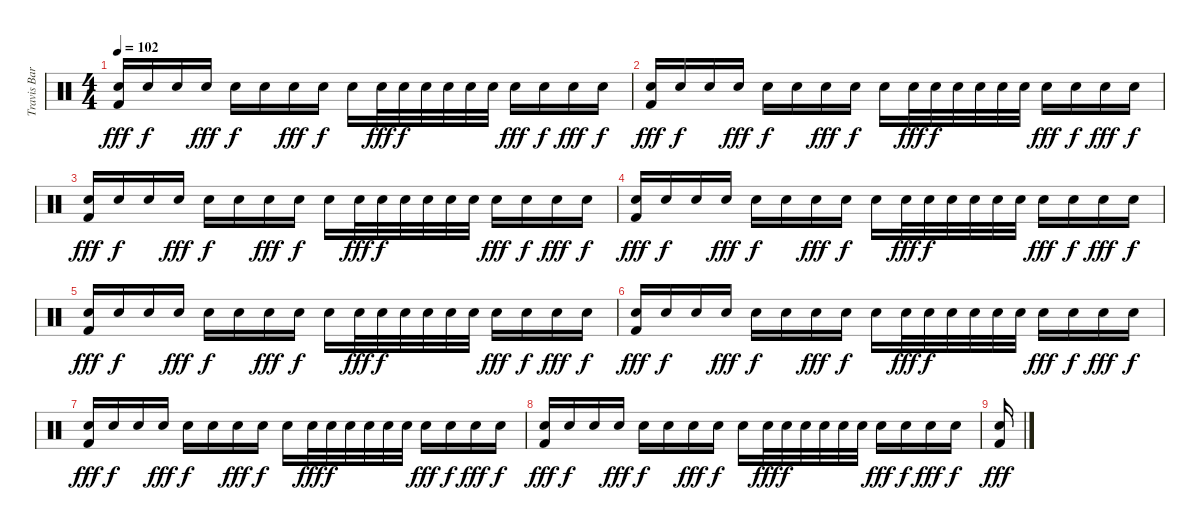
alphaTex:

\track ("Travis Barker" "Travis Bar") {instrument percussion}
\staff {score}
\articulation defaults
\ts (4 4)
\tempo 102
\clef neutral
\ks c
("Electric Snare (hit)" "Kick (hit) 2").16{dy fff} "Electric Snare (hit)".16{dy f} "Electric Snare (hit)".16 "Electric Snare (hit)".16{dy fff} "Electric Snare (hit)".16{dy f} "Electric Snare (hit)".16 "Electric Snare (hit)".16{dy fff} "Electric Snare (hit)".16{dy f} "Electric Snare (hit)".16 "Electric Snare (hit)".32{dy fff} "Electric Snare (hit)".32{dy f} "Electric Snare (hit)".32 "Electric Snare (hit)".32 "Electric Snare (hit)".32 "Electric Snare (hit)".32 "Electric Snare (hit)".16{dy fff} "Electric Snare (hit)".16{dy f} "Electric Snare (hit)".16{dy fff} "Electric Snare (hit)".16{dy f} |
("Electric Snare (hit)" "Kick (hit) 2").16{dy fff} "Electric Snare (hit)".16{dy f} "Electric Snare (hit)".16 "Electric Snare (hit)".16{dy fff} "Electric Snare (hit)".16{dy f} "Electric Snare (hit)".16 "Electric Snare (hit)".16{dy fff} "Electric Snare (hit)".16{dy f} "Electric Snare (hit)".16 "Electric Snare (hit)".32{dy fff} "Electric Snare (hit)".32{dy f} "Electric Snare (hit)".32 "Electric Snare (hit)".32 "Electric Snare (hit)".32 "Electric Snare (hit)".32 "Electric Snare (hit)".16{dy fff} "Electric Snare (hit)".16{dy f} "Electric Snare (hit)".16{dy fff} "Electric Snare (hit)".16{dy f} |
("Electric Snare (hit)" "Kick (hit) 2").16{dy fff} "Electric Snare (hit)".16{dy f} "Electric Snare (hit)".16 "Electric Snare (hit)".16{dy fff} "Electric Snare (hit)".16{dy f} "Electric Snare (hit)".16 "Electric Snare (hit)".16{dy fff} "Electric Snare (hit)".16{dy f} "Electric Snare (hit)".16 "Electric Snare (hit)".32{dy fff} "Electric Snare (hit)".32{dy f} "Electric Snare (hit)".32 "Electric Snare (hit)".32 "Electric Snare (hit)".32 "Electric Snare (hit)".32 "Electric Snare (hit)".16{dy fff} "Electric Snare (hit)".16{dy f} "Electric Snare (hit)".16{dy fff} "Electric Snare (hit)".16{dy f} |
("Electric Snare (hit)" "Kick (hit) 2").16{dy fff} "Electric Snare (hit)".16{dy f} "Electric Snare (hit)".16 "Electric Snare (hit)".16{dy fff} "Electric Snare (hit)".16{dy f} "Electric Snare (hit)".16 "Electric Snare (hit)".16{dy fff} "Electric Snare (hit)".16{dy f} "Electric Snare (hit)".16 "Electric Snare (hit)".32{dy fff} "Electric Snare (hit)".32{dy f} "Electric Snare (hit)".32 "Electric Snare (hit)".32 "Electric Snare (hit)".32 "Electric Snare (hit)".32 "Electric Snare (hit)".16{dy fff} "Electric Snare (hit)".16{dy f} "Electric Snare (hit)".16{dy fff} "Electric Snare (hit)".16{dy f} |
("Electric Snare (hit)" "Kick (hit) 2").16{dy fff} "Electric Snare (hit)".16{dy f} "Electric Snare (hit)".16 "Electric Snare (hit)".16{dy fff} "Electric Snare (hit)".16{dy f} "Electric Snare (hit)".16 "Electric Snare (hit)".16{dy fff} "Electric Snare (hit)".16{dy f} "Electric Snare (hit)".16 "Electric Snare (hit)".32{dy fff} "Electric Snare (hit)".32{dy f} "Electric Snare (hit)".32 "Electric Snare (hit)".32 "Electric Snare (hit)".32 "Electric Snare (hit)".32 "Electric Snare (hit)".16{dy fff} "Electric Snare (hit)".16{dy f} "Electric Snare (hit)".16{dy fff} "Electric Snare (hit)".16{dy f} |
("Electric Snare (hit)" "Kick (hit) 2").16{dy fff} "Electric Snare (hit)".16{dy f} "Electric Snare (hit)".16 "Electric Snare (hit)".16{dy fff} "Electric Snare (hit)".16{dy f} "Electric Snare (hit)".16 "Electric Snare (hit)".16{dy fff} "Electric Snare (hit)".16{dy f} "Electric Snare (hit)".16 "Electric Snare (hit)".32{dy fff} "Electric Snare (hit)".32{dy f} "Electric Snare (hit)".32 "Electric Snare (hit)".32 "Electric Snare (hit)".32 "Electric Snare (hit)".32 "Electric Snare (hit)".16{dy fff} "Electric Snare (hit)".16{dy f} "Electric Snare (hit)".16{dy fff} "Electric Snare (hit)".16{dy f} |
("Electric Snare (hit)" "Kick (hit) 2").16{dy fff} "Electric Snare (hit)".16{dy f} "Electric Snare (hit)".16 "Electric Snare (hit)".16{dy fff} "Electric Snare (hit)".16{dy f} "Electric Snare (hit)".16 "Electric Snare (hit)".16{dy fff} "Electric Snare (hit)".16{dy f} "Electric Snare (hit)".16 "Electric Snare (hit)".32{dy fff} "Electric Snare (hit)".32{dy f} "Electric Snare (hit)".32 "Electric Snare (hit)".32 "Electric Snare (hit)".32 "Electric Snare (hit)".32 "Electric Snare (hit)".16{dy fff} "Electric Snare (hit)".16{dy f} "Electric Snare (hit)".16{dy fff} "Electric Snare (hit)".16{dy f} |
("Electric Snare (hit)" "Kick (hit) 2").16{dy fff} "Electric Snare (hit)".16{dy f} "Electric Snare (hit)".16 "Electric Snare (hit)".16{dy fff} "Electric Snare (hit)".16{dy f} "Electric Snare (hit)".16 "Electric Snare (hit)".16{dy fff} "Electric Snare (hit)".16{dy f} "Electric Snare (hit)".16 "Electric Snare (hit)".32{dy fff} "Electric Snare (hit)".32{dy f} "Electric Snare (hit)".32 "Electric Snare (hit)".32 "Electric Snare (hit)".32 "Electric Snare (hit)".32 "Electric Snare (hit)".16{dy fff} "Electric Snare (hit)".16{dy f} "Electric Snare (hit)".16{dy fff} "Electric Snare (hit)".16{dy f} |
("Electric Snare (hit)" "Kick (hit) 2").16{dy fff}
